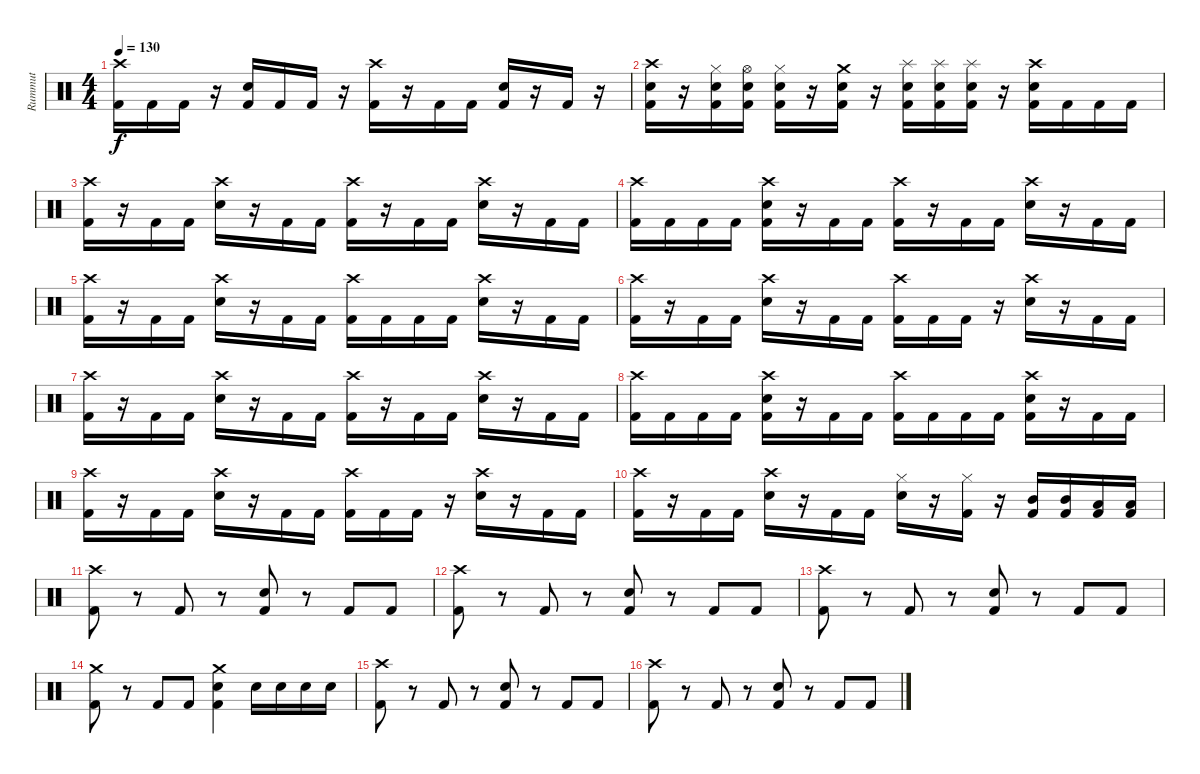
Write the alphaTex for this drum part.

\track ("Rummut" "Rummut") {instrument percussion}
\staff {score}
\articulation defaults
\ts (4 4)
\tempo 130
\clef neutral
\ks c
("Crash high (hit)" "Kick (hit) 2").16{dy f} "Kick (hit) 2".16 "Kick (hit) 2".16 r.16 ("Snare (hit) 2" "Kick (hit) 2").16 "Kick (hit) 2".16 "Kick (hit) 2".16 r.16 ("Crash high (hit)" "Kick (hit) 2").16 r.16 "Kick (hit) 2".16 "Kick (hit) 2".16 ("Snare (hit) 2" "Kick (hit) 2").16 r.16 "Kick (hit) 2".16 r.16 |
("Crash high (hit)" "Snare (hit) 2" "Kick (hit) 2").16 r.16 ("Hi-Hat (closed)" "Snare (hit) 2" "Kick (hit) 2").16 ("Hi-Hat (open)" "Snare (hit) 2" "Kick (hit) 2").16 ("Hi-Hat (closed)" "Snare (hit) 2" "Kick (hit) 2").16 r.16 ("Crash medium (hit)" "Snare (hit) 2" "Kick (hit) 2").16 r.16 ("Splash (hit)" "Snare (hit) 2" "Kick (hit) 2").16 ("Splash (hit)" "Snare (hit) 2" "Kick (hit) 2").16 ("Splash (hit)" "Snare (hit) 2" "Kick (hit) 2").16 r.16 ("Crash high (hit)" "Snare (hit) 2" "Kick (hit) 2").16 "Kick (hit) 2".16 "Kick (hit) 2".16 "Kick (hit) 2".16 |
("Crash high (hit)" "Kick (hit) 2").16 r.16 "Kick (hit) 2".16 "Kick (hit) 2".16 ("Crash high (hit)" "Snare (hit) 2").16 r.16 "Kick (hit) 2".16 "Kick (hit) 2".16 ("Crash high (hit)" "Kick (hit) 2").16 r.16 "Kick (hit) 2".16 "Kick (hit) 2".16 ("Crash high (hit)" "Snare (hit) 2").16 r.16 "Kick (hit) 2".16 "Kick (hit) 2".16 |
("Crash high (hit)" "Kick (hit) 2").16 "Kick (hit) 2".16 "Kick (hit) 2".16 "Kick (hit) 2".16 ("Crash high (hit)" "Snare (hit) 2" "Kick (hit) 2").16 r.16 "Kick (hit) 2".16 "Kick (hit) 2".16 ("Crash high (hit)" "Kick (hit) 2").16 r.16 "Kick (hit) 2".16 "Kick (hit) 2".16 ("Crash high (hit)" "Snare (hit) 2").16 r.16 "Kick (hit) 2".16 "Kick (hit) 2".16 |
("Crash high (hit)" "Kick (hit) 2").16 r.16 "Kick (hit) 2".16 "Kick (hit) 2".16 ("Crash high (hit)" "Snare (hit) 2").16 r.16 "Kick (hit) 2".16 "Kick (hit) 2".16 ("Crash high (hit)" "Kick (hit) 2").16 "Kick (hit) 2".16 "Kick (hit) 2".16 "Kick (hit) 2".16 ("Crash high (hit)" "Snare (hit) 2").16 r.16 "Kick (hit) 2".16 "Kick (hit) 2".16 |
("Crash high (hit)" "Kick (hit) 2").16 r.16 "Kick (hit) 2".16 "Kick (hit) 2".16 ("Crash high (hit)" "Snare (hit) 2").16 r.16 "Kick (hit) 2".16 "Kick (hit) 2".16 ("Crash high (hit)" "Kick (hit) 2").16 "Kick (hit) 2".16 "Kick (hit) 2".16 r.16 ("Crash high (hit)" "Snare (hit) 2").16 r.16 "Kick (hit) 2".16 "Kick (hit) 2".16 |
("Crash high (hit)" "Kick (hit) 2").16 r.16 "Kick (hit) 2".16 "Kick (hit) 2".16 ("Crash high (hit)" "Snare (hit) 2").16 r.16 "Kick (hit) 2".16 "Kick (hit) 2".16 ("Crash high (hit)" "Kick (hit) 2").16 r.16 "Kick (hit) 2".16 "Kick (hit) 2".16 ("Crash high (hit)" "Snare (hit) 2").16 r.16 "Kick (hit) 2".16 "Kick (hit) 2".16 |
("Crash high (hit)" "Kick (hit) 2").16 "Kick (hit) 2".16 "Kick (hit) 2".16 "Kick (hit) 2".16 ("Crash high (hit)" "Snare (hit) 2" "Kick (hit) 2").16 r.16 "Kick (hit) 2".16 "Kick (hit) 2".16 ("Crash high (hit)" "Kick (hit) 2").16 "Kick (hit) 2".16 "Kick (hit) 2".16 "Kick (hit) 2".16 ("Crash high (hit)" "Snare (hit) 2" "Kick (hit) 2").16 r.16 "Kick (hit) 2".16 "Kick (hit) 2".16 |
("Crash high (hit)" "Kick (hit) 2").16 r.16 "Kick (hit) 2".16 "Kick (hit) 2".16 ("Crash high (hit)" "Snare (hit) 2").16 r.16 "Kick (hit) 2".16 "Kick (hit) 2".16 ("Crash high (hit)" "Kick (hit) 2").16 "Kick (hit) 2".16 "Kick (hit) 2".16 r.16 ("Crash high (hit)" "Snare (hit) 2").16 r.16 "Kick (hit) 2".16 "Kick (hit) 2".16 |
("Crash high (hit)" "Kick (hit) 2").16 r.16 "Kick (hit) 2".16 "Kick (hit) 2".16 ("Crash high (hit)" "Snare (hit) 2").16 r.16 "Kick (hit) 2".16 "Kick (hit) 2".16 ("Hi-Hat (closed)" "Snare (hit) 2").16 r.16 ("Hi-Hat (closed)" "Kick (hit) 2").16 r.16 ("Mid Tom (hit)" "Kick (hit) 2").16 ("Mid Tom (hit)" "Kick (hit) 2").16 ("Low Tom (hit)" "Kick (hit) 2").16 ("Low Tom (hit)" "Kick (hit) 2").16 |
("Crash high (hit)" "Kick (hit) 2").8 r.8 "Kick (hit) 2".8 r.8 ("Snare (hit) 2" "Kick (hit) 2").8 r.8 "Kick (hit) 2".8 "Kick (hit) 2".8 |
("Crash high (hit)" "Kick (hit) 2").8 r.8 "Kick (hit) 2".8 r.8 ("Snare (hit) 2" "Kick (hit) 2").8 r.8 "Kick (hit) 2".8 "Kick (hit) 2".8 |
("Crash high (hit)" "Kick (hit) 2").8 r.8 "Kick (hit) 2".8 r.8 ("Snare (hit) 2" "Kick (hit) 2").8 r.8 "Kick (hit) 2".8 "Kick (hit) 2".8 |
("Crash medium (hit)" "Kick (hit) 2").8 r.8 "Kick (hit) 2".8 "Kick (hit) 2".8 ("Crash medium (hit)" "Snare (hit) 2" "Kick (hit) 2").4 "Snare (hit) 2".16 "Snare (hit) 2".16 "Snare (hit) 2".16 "Snare (hit) 2".16 |
("Crash high (hit)" "Kick (hit) 2").8 r.8 "Kick (hit) 2".8 r.8 ("Snare (hit) 2" "Kick (hit) 2").8 r.8 "Kick (hit) 2".8 "Kick (hit) 2".8 |
("Crash high (hit)" "Kick (hit) 2").8 r.8 "Kick (hit) 2".8 r.8 ("Snare (hit) 2" "Kick (hit) 2").8 r.8 "Kick (hit) 2".8 "Kick (hit) 2".8
